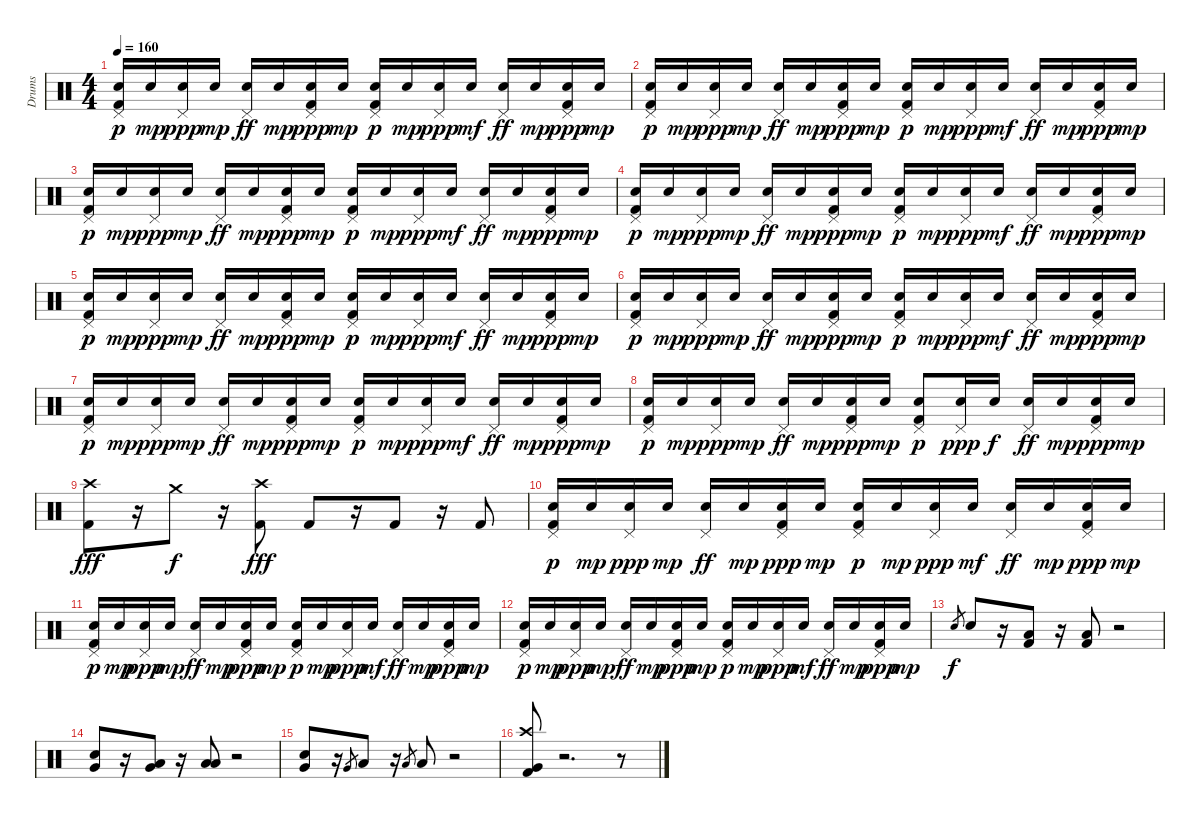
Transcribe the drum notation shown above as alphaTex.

\track ("Drums" "Drums") {instrument percussion}
\staff {score}
\articulation defaults
\ts (4 4)
\tempo 160
\clef neutral
\ks c
("Kick (hit) 2" "Snare (hit) 2" "Pedal Hi-Hat (hit)").16{dy p} "Snare (hit) 2".16{dy mp} ("Snare (hit) 2" "Pedal Hi-Hat (hit)").16{dy ppp} "Snare (hit) 2".16{dy mp} ("Snare (hit) 2" "Pedal Hi-Hat (hit)").16{dy ff} "Snare (hit) 2".16{dy mp} ("Kick (hit) 2" "Snare (hit) 2" "Pedal Hi-Hat (hit)").16{dy ppp} "Snare (hit) 2".16{dy mp} ("Kick (hit) 2" "Snare (hit) 2" "Pedal Hi-Hat (hit)").16{dy p} "Snare (hit) 2".16{dy mp} ("Snare (hit) 2" "Pedal Hi-Hat (hit)").16{dy ppp} "Snare (hit) 2".16{dy mf} ("Snare (hit) 2" "Pedal Hi-Hat (hit)").16{dy ff} "Snare (hit) 2".16{dy mp} ("Kick (hit) 2" "Snare (hit) 2" "Pedal Hi-Hat (hit)").16{dy ppp} "Snare (hit) 2".16{dy mp} |
("Kick (hit) 2" "Snare (hit) 2" "Pedal Hi-Hat (hit)").16{dy p} "Snare (hit) 2".16{dy mp} ("Snare (hit) 2" "Pedal Hi-Hat (hit)").16{dy ppp} "Snare (hit) 2".16{dy mp} ("Snare (hit) 2" "Pedal Hi-Hat (hit)").16{dy ff} "Snare (hit) 2".16{dy mp} ("Kick (hit) 2" "Snare (hit) 2" "Pedal Hi-Hat (hit)").16{dy ppp} "Snare (hit) 2".16{dy mp} ("Kick (hit) 2" "Snare (hit) 2" "Pedal Hi-Hat (hit)").16{dy p} "Snare (hit) 2".16{dy mp} ("Snare (hit) 2" "Pedal Hi-Hat (hit)").16{dy ppp} "Snare (hit) 2".16{dy mf} ("Snare (hit) 2" "Pedal Hi-Hat (hit)").16{dy ff} "Snare (hit) 2".16{dy mp} ("Kick (hit) 2" "Snare (hit) 2" "Pedal Hi-Hat (hit)").16{dy ppp} "Snare (hit) 2".16{dy mp} |
("Kick (hit) 2" "Snare (hit) 2" "Pedal Hi-Hat (hit)").16{dy p} "Snare (hit) 2".16{dy mp} ("Snare (hit) 2" "Pedal Hi-Hat (hit)").16{dy ppp} "Snare (hit) 2".16{dy mp} ("Snare (hit) 2" "Pedal Hi-Hat (hit)").16{dy ff} "Snare (hit) 2".16{dy mp} ("Kick (hit) 2" "Snare (hit) 2" "Pedal Hi-Hat (hit)").16{dy ppp} "Snare (hit) 2".16{dy mp} ("Kick (hit) 2" "Snare (hit) 2" "Pedal Hi-Hat (hit)").16{dy p} "Snare (hit) 2".16{dy mp} ("Snare (hit) 2" "Pedal Hi-Hat (hit)").16{dy ppp} "Snare (hit) 2".16{dy mf} ("Snare (hit) 2" "Pedal Hi-Hat (hit)").16{dy ff} "Snare (hit) 2".16{dy mp} ("Kick (hit) 2" "Snare (hit) 2" "Pedal Hi-Hat (hit)").16{dy ppp} "Snare (hit) 2".16{dy mp} |
("Kick (hit) 2" "Snare (hit) 2" "Pedal Hi-Hat (hit)").16{dy p} "Snare (hit) 2".16{dy mp} ("Snare (hit) 2" "Pedal Hi-Hat (hit)").16{dy ppp} "Snare (hit) 2".16{dy mp} ("Snare (hit) 2" "Pedal Hi-Hat (hit)").16{dy ff} "Snare (hit) 2".16{dy mp} ("Kick (hit) 2" "Snare (hit) 2" "Pedal Hi-Hat (hit)").16{dy ppp} "Snare (hit) 2".16{dy mp} ("Kick (hit) 2" "Snare (hit) 2" "Pedal Hi-Hat (hit)").16{dy p} "Snare (hit) 2".16{dy mp} ("Snare (hit) 2" "Pedal Hi-Hat (hit)").16{dy ppp} "Snare (hit) 2".16{dy mf} ("Snare (hit) 2" "Pedal Hi-Hat (hit)").16{dy ff} "Snare (hit) 2".16{dy mp} ("Kick (hit) 2" "Snare (hit) 2" "Pedal Hi-Hat (hit)").16{dy ppp} "Snare (hit) 2".16{dy mp} |
("Kick (hit) 2" "Snare (hit) 2" "Pedal Hi-Hat (hit)").16{dy p} "Snare (hit) 2".16{dy mp} ("Snare (hit) 2" "Pedal Hi-Hat (hit)").16{dy ppp} "Snare (hit) 2".16{dy mp} ("Snare (hit) 2" "Pedal Hi-Hat (hit)").16{dy ff} "Snare (hit) 2".16{dy mp} ("Kick (hit) 2" "Snare (hit) 2" "Pedal Hi-Hat (hit)").16{dy ppp} "Snare (hit) 2".16{dy mp} ("Kick (hit) 2" "Snare (hit) 2" "Pedal Hi-Hat (hit)").16{dy p} "Snare (hit) 2".16{dy mp} ("Snare (hit) 2" "Pedal Hi-Hat (hit)").16{dy ppp} "Snare (hit) 2".16{dy mf} ("Snare (hit) 2" "Pedal Hi-Hat (hit)").16{dy ff} "Snare (hit) 2".16{dy mp} ("Kick (hit) 2" "Snare (hit) 2" "Pedal Hi-Hat (hit)").16{dy ppp} "Snare (hit) 2".16{dy mp} |
("Kick (hit) 2" "Snare (hit) 2" "Pedal Hi-Hat (hit)").16{dy p} "Snare (hit) 2".16{dy mp} ("Snare (hit) 2" "Pedal Hi-Hat (hit)").16{dy ppp} "Snare (hit) 2".16{dy mp} ("Snare (hit) 2" "Pedal Hi-Hat (hit)").16{dy ff} "Snare (hit) 2".16{dy mp} ("Kick (hit) 2" "Snare (hit) 2" "Pedal Hi-Hat (hit)").16{dy ppp} "Snare (hit) 2".16{dy mp} ("Kick (hit) 2" "Snare (hit) 2" "Pedal Hi-Hat (hit)").16{dy p} "Snare (hit) 2".16{dy mp} ("Snare (hit) 2" "Pedal Hi-Hat (hit)").16{dy ppp} "Snare (hit) 2".16{dy mf} ("Snare (hit) 2" "Pedal Hi-Hat (hit)").16{dy ff} "Snare (hit) 2".16{dy mp} ("Kick (hit) 2" "Snare (hit) 2" "Pedal Hi-Hat (hit)").16{dy ppp} "Snare (hit) 2".16{dy mp} |
("Kick (hit) 2" "Snare (hit) 2" "Pedal Hi-Hat (hit)").16{dy p} "Snare (hit) 2".16{dy mp} ("Snare (hit) 2" "Pedal Hi-Hat (hit)").16{dy ppp} "Snare (hit) 2".16{dy mp} ("Snare (hit) 2" "Pedal Hi-Hat (hit)").16{dy ff} "Snare (hit) 2".16{dy mp} ("Kick (hit) 2" "Snare (hit) 2" "Pedal Hi-Hat (hit)").16{dy ppp} "Snare (hit) 2".16{dy mp} ("Kick (hit) 2" "Snare (hit) 2" "Pedal Hi-Hat (hit)").16{dy p} "Snare (hit) 2".16{dy mp} ("Snare (hit) 2" "Pedal Hi-Hat (hit)").16{dy ppp} "Snare (hit) 2".16{dy mf} ("Snare (hit) 2" "Pedal Hi-Hat (hit)").16{dy ff} "Snare (hit) 2".16{dy mp} ("Kick (hit) 2" "Snare (hit) 2" "Pedal Hi-Hat (hit)").16{dy ppp} "Snare (hit) 2".16{dy mp} |
("Kick (hit) 2" "Snare (hit) 2" "Pedal Hi-Hat (hit)").16{dy p} "Snare (hit) 2".16{dy mp} ("Snare (hit) 2" "Pedal Hi-Hat (hit)").16{dy ppp} "Snare (hit) 2".16{dy mp} ("Snare (hit) 2" "Pedal Hi-Hat (hit)").16{dy ff} "Snare (hit) 2".16{dy mp} ("Kick (hit) 2" "Snare (hit) 2" "Pedal Hi-Hat (hit)").16{dy ppp} "Snare (hit) 2".16{dy mp} ("Kick (hit) 2" "Snare (hit) 2" "Pedal Hi-Hat (hit)").8{dy p} ("Snare (hit) 2" "Pedal Hi-Hat (hit)").16{dy ppp} "Snare (hit) 2".16{dy f} ("Snare (hit) 2" "Pedal Hi-Hat (hit)").16{dy ff} "Snare (hit) 2".16{dy mp} ("Kick (hit) 2" "Snare (hit) 2" "Pedal Hi-Hat (hit)").16{dy ppp} "Snare (hit) 2".16{dy mp} |
("Kick (hit) 2" "Crash high (hit)").8{dy fff} r.16 "Crash medium (hit)".8{dy f} r.16 ("Kick (hit) 2" "Crash high (hit)").8{dy fff} "Kick (hit) 2".8 r.16 "Kick (hit) 2".8 r.16 "Kick (hit) 2".8 |
("Kick (hit) 2" "Snare (hit) 2" "Pedal Hi-Hat (hit)").16{dy p} "Snare (hit) 2".16{dy mp} ("Snare (hit) 2" "Pedal Hi-Hat (hit)").16{dy ppp} "Snare (hit) 2".16{dy mp} ("Snare (hit) 2" "Pedal Hi-Hat (hit)").16{dy ff} "Snare (hit) 2".16{dy mp} ("Kick (hit) 2" "Snare (hit) 2" "Pedal Hi-Hat (hit)").16{dy ppp} "Snare (hit) 2".16{dy mp} ("Kick (hit) 2" "Snare (hit) 2" "Pedal Hi-Hat (hit)").16{dy p} "Snare (hit) 2".16{dy mp} ("Snare (hit) 2" "Pedal Hi-Hat (hit)").16{dy ppp} "Snare (hit) 2".16{dy mf} ("Snare (hit) 2" "Pedal Hi-Hat (hit)").16{dy ff} "Snare (hit) 2".16{dy mp} ("Kick (hit) 2" "Snare (hit) 2" "Pedal Hi-Hat (hit)").16{dy ppp} "Snare (hit) 2".16{dy mp} |
("Kick (hit) 2" "Snare (hit) 2" "Pedal Hi-Hat (hit)").16{dy p} "Snare (hit) 2".16{dy mp} ("Snare (hit) 2" "Pedal Hi-Hat (hit)").16{dy ppp} "Snare (hit) 2".16{dy mp} ("Snare (hit) 2" "Pedal Hi-Hat (hit)").16{dy ff} "Snare (hit) 2".16{dy mp} ("Kick (hit) 2" "Snare (hit) 2" "Pedal Hi-Hat (hit)").16{dy ppp} "Snare (hit) 2".16{dy mp} ("Kick (hit) 2" "Snare (hit) 2" "Pedal Hi-Hat (hit)").16{dy p} "Snare (hit) 2".16{dy mp} ("Snare (hit) 2" "Pedal Hi-Hat (hit)").16{dy ppp} "Snare (hit) 2".16{dy mf} ("Snare (hit) 2" "Pedal Hi-Hat (hit)").16{dy ff} "Snare (hit) 2".16{dy mp} ("Kick (hit) 2" "Snare (hit) 2" "Pedal Hi-Hat (hit)").16{dy ppp} "Snare (hit) 2".16{dy mp} |
("Kick (hit) 2" "Snare (hit) 2" "Pedal Hi-Hat (hit)").16{dy p} "Snare (hit) 2".16{dy mp} ("Snare (hit) 2" "Pedal Hi-Hat (hit)").16{dy ppp} "Snare (hit) 2".16{dy mp} ("Snare (hit) 2" "Pedal Hi-Hat (hit)").16{dy ff} "Snare (hit) 2".16{dy mp} ("Kick (hit) 2" "Snare (hit) 2" "Pedal Hi-Hat (hit)").16{dy ppp} "Snare (hit) 2".16{dy mp} ("Kick (hit) 2" "Snare (hit) 2" "Pedal Hi-Hat (hit)").16{dy p} "Snare (hit) 2".16{dy mp} ("Snare (hit) 2" "Pedal Hi-Hat (hit)").16{dy ppp} "Snare (hit) 2".16{dy mf} ("Snare (hit) 2" "Pedal Hi-Hat (hit)").16{dy ff} "Snare (hit) 2".16{dy mp} ("Kick (hit) 2" "Snare (hit) 2" "Pedal Hi-Hat (hit)").16{dy ppp} "Snare (hit) 2".16{dy mp} |
"Snare (hit) 2".8{gr dy f} "Snare (hit) 2".8 r.16 ("Kick (hit) 2" "Low Tom (hit)").8 r.16 ("Kick (hit) 2" "Low Floor Tom (hit)").8 r.2 |
("Snare (hit) 2" "Very Low Tom (hit)").8 r.16 ("Very Low Tom (hit)" "Low Tom (hit)").8 r.16 ("Low Floor Tom (hit)" "Low Tom (hit)").8 r.2 |
("Snare (hit) 2" "Very Low Tom (hit)").8 r.16 "Very Low Tom (hit)".8{gr} "Low Tom (hit)".8 r.16 "Low Floor Tom (hit)".8{gr} "Low Tom (hit)".8 r.2 |
("Kick (hit) 2" "Very Low Tom (hit)" "Crash high (hit)").8 r.2{d} r.8
